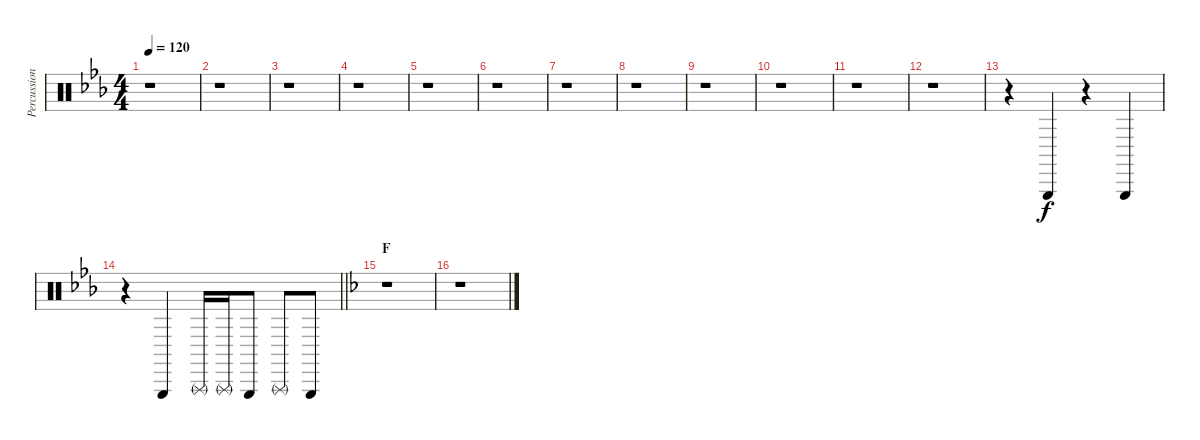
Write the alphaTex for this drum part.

\track ("Percussion" "Percussion") {instrument percussion}
\staff {score}
\articulation defaults
\ts (4 4)
\tempo 120
\clef neutral
\ks eb
r.1{dy f} |
r.1 |
r.1 |
r.1 |
r.1 |
r.1 |
r.1 |
r.1 |
r.1 |
r.1 |
r.1 |
r.1 |
r.4 "Triangle (hit)".4 r.4 "Triangle (hit)".4 |
\barLineRight lightlight
r.4 "Triangle (hit)".4 "Triangle (rnute)".16 "Triangle (rnute)".16 "Triangle (hit)".8 "Triangle (rnute)".8 "Triangle (hit)".8 |
\section ("" "F")
\ks f
r.1 |
r.1
